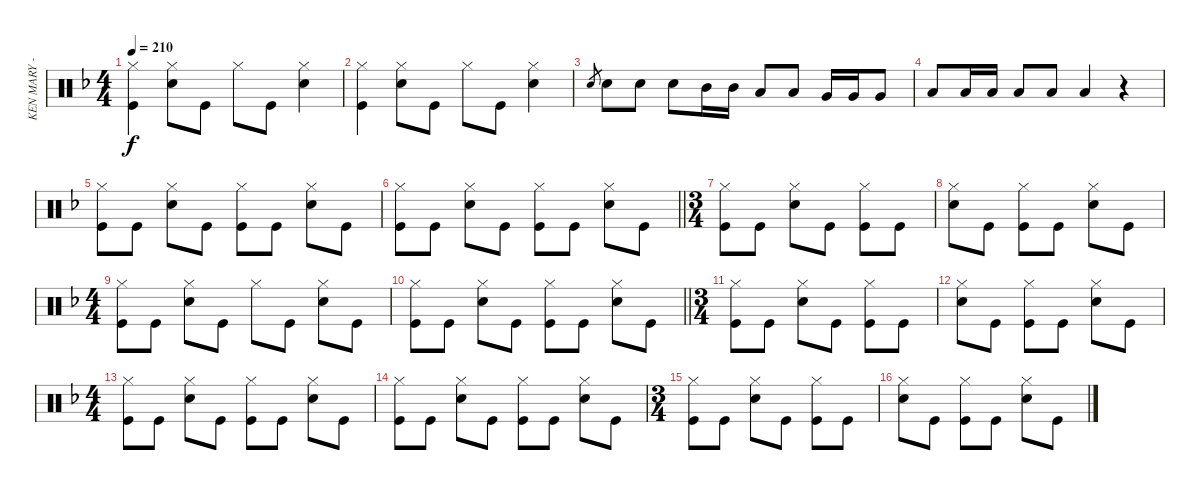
\track ("KEN MARY - DRUMS" "KEN MARY -") {instrument percussion}
\staff {score}
\articulation defaults
\ts (4 4)
\tempo 210
\clef neutral
\ks f
("Hi-Hat (closed)" "Kick (hit)").4{dy f} ("Hi-Hat (closed)" "Snare (hit) 2").8 "Kick (hit)".8 "Hi-Hat (closed)".8 "Kick (hit)".8 ("Hi-Hat (closed)" "Snare (hit) 2").4 |
("Hi-Hat (closed)" "Kick (hit)").4 ("Hi-Hat (closed)" "Snare (hit) 2").8 "Kick (hit)".8 "Hi-Hat (closed)".8 "Kick (hit)".8 ("Hi-Hat (closed)" "Snare (hit) 2").4 |
"Snare (hit) 2".8{gr} "Snare (hit) 2".8 "Snare (hit) 2".8 "Snare (hit) 2".8 "Mid Tom (hit)".16 "Mid Tom (hit)".16 "Low Tom (hit)".8 "Low Tom (hit)".8 "Very Low Tom (hit)".16 "Very Low Tom (hit)".16 "Very Low Tom (hit)".8 |
"Low Floor Tom (hit)".8 "Low Floor Tom (hit)".16 "Low Floor Tom (hit)".16 "Low Floor Tom (hit)".8 "Low Floor Tom (hit)".8 "Low Floor Tom (hit)".4 r.4 |
("Hi-Hat (closed)" "Kick (hit)").8 "Kick (hit)".8 ("Hi-Hat (closed)" "Snare (hit) 2").8 "Kick (hit)".8 ("Hi-Hat (closed)" "Kick (hit)").8 "Kick (hit)".8 ("Hi-Hat (closed)" "Snare (hit) 2").8 "Kick (hit)".8 |
\barLineRight lightlight
("Hi-Hat (closed)" "Kick (hit)").8 "Kick (hit)".8 ("Hi-Hat (closed)" "Snare (hit) 2").8 "Kick (hit)".8 ("Hi-Hat (closed)" "Kick (hit)").8 "Kick (hit)".8 ("Hi-Hat (closed)" "Snare (hit) 2").8 "Kick (hit)".8 |
\ts (3 4)
("Hi-Hat (closed)" "Kick (hit)").8 "Kick (hit)".8 ("Hi-Hat (closed)" "Snare (hit) 2").8 "Kick (hit)".8 ("Hi-Hat (closed)" "Kick (hit)").8 "Kick (hit)".8 |
("Hi-Hat (closed)" "Snare (hit) 2").8 "Kick (hit)".8 ("Hi-Hat (closed)" "Kick (hit)").8 "Kick (hit)".8 ("Hi-Hat (closed)" "Snare (hit) 2").8 "Kick (hit)".8 |
\ts (4 4)
("Hi-Hat (closed)" "Kick (hit)").8 "Kick (hit)".8 ("Hi-Hat (closed)" "Snare (hit) 2").8 "Kick (hit)".8 "Hi-Hat (closed)".8 "Kick (hit)".8 ("Hi-Hat (closed)" "Snare (hit) 2").8 "Kick (hit)".8 |
\barLineRight lightlight
("Hi-Hat (closed)" "Kick (hit)").8 "Kick (hit)".8 ("Hi-Hat (closed)" "Snare (hit) 2").8 "Kick (hit)".8 ("Hi-Hat (closed)" "Kick (hit)").8 "Kick (hit)".8 ("Hi-Hat (closed)" "Snare (hit) 2").8 "Kick (hit)".8 |
\ts (3 4)
("Hi-Hat (closed)" "Kick (hit)").8 "Kick (hit)".8 ("Hi-Hat (closed)" "Snare (hit) 2").8 "Kick (hit)".8 ("Hi-Hat (closed)" "Kick (hit)").8 "Kick (hit)".8 |
("Hi-Hat (closed)" "Snare (hit) 2").8 "Kick (hit)".8 ("Hi-Hat (closed)" "Kick (hit)").8 "Kick (hit)".8 ("Hi-Hat (closed)" "Snare (hit) 2").8 "Kick (hit)".8 |
\ts (4 4)
("Hi-Hat (closed)" "Kick (hit)").8 "Kick (hit)".8 ("Hi-Hat (closed)" "Snare (hit) 2").8 "Kick (hit)".8 ("Hi-Hat (closed)" "Kick (hit)").8 "Kick (hit)".8 ("Hi-Hat (closed)" "Snare (hit) 2").8 "Kick (hit)".8 |
("Hi-Hat (closed)" "Kick (hit)").8 "Kick (hit)".8 ("Hi-Hat (closed)" "Snare (hit) 2").8 "Kick (hit)".8 ("Hi-Hat (closed)" "Kick (hit)").8 "Kick (hit)".8 ("Hi-Hat (closed)" "Snare (hit) 2").8 "Kick (hit)".8 |
\ts (3 4)
("Hi-Hat (closed)" "Kick (hit)").8 "Kick (hit)".8 ("Hi-Hat (closed)" "Snare (hit) 2").8 "Kick (hit)".8 ("Hi-Hat (closed)" "Kick (hit)").8 "Kick (hit)".8 |
("Hi-Hat (closed)" "Snare (hit) 2").8 "Kick (hit)".8 ("Hi-Hat (closed)" "Kick (hit)").8 "Kick (hit)".8 ("Hi-Hat (closed)" "Snare (hit) 2").8 "Kick (hit)".8
